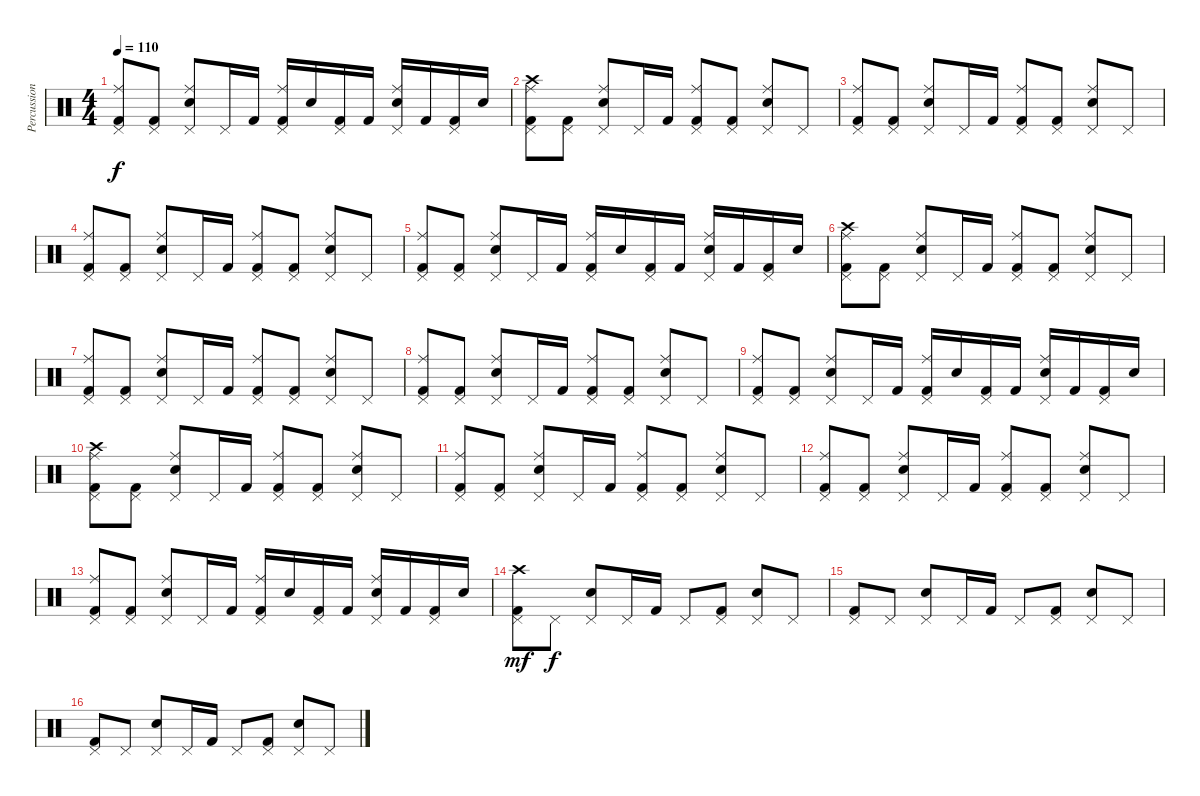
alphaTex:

\track ("Percussion" "Percussion") {instrument percussion}
\staff {score}
\articulation defaults
\ts (4 4)
\tempo 110
\clef neutral
\ks c
("Pedal Hi-Hat (hit)" "Kick (hit) 2" "Ride (middle)").8{dy f} ("Pedal Hi-Hat (hit)" "Kick (hit) 2").8 ("Pedal Hi-Hat (hit)" "Electric Snare (hit)" "Ride (middle)").8 "Pedal Hi-Hat (hit)".16 "Kick (hit) 2".16 ("Pedal Hi-Hat (hit)" "Kick (hit) 2" "Ride (middle)").16 "Electric Snare (hit)".16 ("Pedal Hi-Hat (hit)" "Kick (hit) 2").16 "Kick (hit) 2".16 ("Pedal Hi-Hat (hit)" "Electric Snare (hit)" "Ride (middle)").16 "Kick (hit) 2".16 ("Pedal Hi-Hat (hit)" "Kick (hit) 2").16 "Electric Snare (hit)".16 |
("Pedal Hi-Hat (hit)" "Kick (hit) 2" "Ride (middle)" "Crash high (hit)").8 ("Pedal Hi-Hat (hit)" "Kick (hit) 2").8 ("Pedal Hi-Hat (hit)" "Electric Snare (hit)" "Ride (middle)").8 "Pedal Hi-Hat (hit)".16 "Kick (hit) 2".16 ("Pedal Hi-Hat (hit)" "Kick (hit) 2" "Ride (middle)").8 ("Pedal Hi-Hat (hit)" "Kick (hit) 2").8 ("Pedal Hi-Hat (hit)" "Electric Snare (hit)" "Ride (middle)").8 "Pedal Hi-Hat (hit)".8 |
("Pedal Hi-Hat (hit)" "Kick (hit) 2" "Ride (middle)").8 ("Pedal Hi-Hat (hit)" "Kick (hit) 2").8 ("Pedal Hi-Hat (hit)" "Electric Snare (hit)" "Ride (middle)").8 "Pedal Hi-Hat (hit)".16 "Kick (hit) 2".16 ("Pedal Hi-Hat (hit)" "Kick (hit) 2" "Ride (middle)").8 ("Pedal Hi-Hat (hit)" "Kick (hit) 2").8 ("Pedal Hi-Hat (hit)" "Electric Snare (hit)" "Ride (middle)").8 "Pedal Hi-Hat (hit)".8 |
("Pedal Hi-Hat (hit)" "Kick (hit) 2" "Ride (middle)").8 ("Pedal Hi-Hat (hit)" "Kick (hit) 2").8 ("Pedal Hi-Hat (hit)" "Electric Snare (hit)" "Ride (middle)").8 "Pedal Hi-Hat (hit)".16 "Kick (hit) 2".16 ("Pedal Hi-Hat (hit)" "Kick (hit) 2" "Ride (middle)").8 ("Pedal Hi-Hat (hit)" "Kick (hit) 2").8 ("Pedal Hi-Hat (hit)" "Electric Snare (hit)" "Ride (middle)").8 "Pedal Hi-Hat (hit)".8 |
("Pedal Hi-Hat (hit)" "Kick (hit) 2" "Ride (middle)").8 ("Pedal Hi-Hat (hit)" "Kick (hit) 2").8 ("Pedal Hi-Hat (hit)" "Electric Snare (hit)" "Ride (middle)").8 "Pedal Hi-Hat (hit)".16 "Kick (hit) 2".16 ("Pedal Hi-Hat (hit)" "Kick (hit) 2" "Ride (middle)").16 "Electric Snare (hit)".16 ("Pedal Hi-Hat (hit)" "Kick (hit) 2").16 "Kick (hit) 2".16 ("Pedal Hi-Hat (hit)" "Electric Snare (hit)" "Ride (middle)").16 "Kick (hit) 2".16 ("Pedal Hi-Hat (hit)" "Kick (hit) 2").16 "Electric Snare (hit)".16 |
("Pedal Hi-Hat (hit)" "Kick (hit) 2" "Ride (middle)" "Crash high (hit)").8 ("Pedal Hi-Hat (hit)" "Kick (hit) 2").8 ("Pedal Hi-Hat (hit)" "Electric Snare (hit)" "Ride (middle)").8 "Pedal Hi-Hat (hit)".16 "Kick (hit) 2".16 ("Pedal Hi-Hat (hit)" "Kick (hit) 2" "Ride (middle)").8 ("Pedal Hi-Hat (hit)" "Kick (hit) 2").8 ("Pedal Hi-Hat (hit)" "Electric Snare (hit)" "Ride (middle)").8 "Pedal Hi-Hat (hit)".8 |
("Pedal Hi-Hat (hit)" "Kick (hit) 2" "Ride (middle)").8 ("Pedal Hi-Hat (hit)" "Kick (hit) 2").8 ("Pedal Hi-Hat (hit)" "Electric Snare (hit)" "Ride (middle)").8 "Pedal Hi-Hat (hit)".16 "Kick (hit) 2".16 ("Pedal Hi-Hat (hit)" "Kick (hit) 2" "Ride (middle)").8 ("Pedal Hi-Hat (hit)" "Kick (hit) 2").8 ("Pedal Hi-Hat (hit)" "Electric Snare (hit)" "Ride (middle)").8 "Pedal Hi-Hat (hit)".8 |
("Pedal Hi-Hat (hit)" "Kick (hit) 2" "Ride (middle)").8 ("Pedal Hi-Hat (hit)" "Kick (hit) 2").8 ("Pedal Hi-Hat (hit)" "Electric Snare (hit)" "Ride (middle)").8 "Pedal Hi-Hat (hit)".16 "Kick (hit) 2".16 ("Pedal Hi-Hat (hit)" "Kick (hit) 2" "Ride (middle)").8 ("Pedal Hi-Hat (hit)" "Kick (hit) 2").8 ("Pedal Hi-Hat (hit)" "Electric Snare (hit)" "Ride (middle)").8 "Pedal Hi-Hat (hit)".8 |
("Pedal Hi-Hat (hit)" "Kick (hit) 2" "Ride (middle)").8 ("Pedal Hi-Hat (hit)" "Kick (hit) 2").8 ("Pedal Hi-Hat (hit)" "Electric Snare (hit)" "Ride (middle)").8 "Pedal Hi-Hat (hit)".16 "Kick (hit) 2".16 ("Pedal Hi-Hat (hit)" "Kick (hit) 2" "Ride (middle)").16 "Electric Snare (hit)".16 ("Pedal Hi-Hat (hit)" "Kick (hit) 2").16 "Kick (hit) 2".16 ("Pedal Hi-Hat (hit)" "Electric Snare (hit)" "Ride (middle)").16 "Kick (hit) 2".16 ("Pedal Hi-Hat (hit)" "Kick (hit) 2").16 "Electric Snare (hit)".16 |
("Pedal Hi-Hat (hit)" "Kick (hit) 2" "Ride (middle)" "Crash high (hit)").8 ("Pedal Hi-Hat (hit)" "Kick (hit) 2").8 ("Pedal Hi-Hat (hit)" "Electric Snare (hit)" "Ride (middle)").8 "Pedal Hi-Hat (hit)".16 "Kick (hit) 2".16 ("Pedal Hi-Hat (hit)" "Kick (hit) 2" "Ride (middle)").8 ("Pedal Hi-Hat (hit)" "Kick (hit) 2").8 ("Pedal Hi-Hat (hit)" "Electric Snare (hit)" "Ride (middle)").8 "Pedal Hi-Hat (hit)".8 |
("Pedal Hi-Hat (hit)" "Kick (hit) 2" "Ride (middle)").8 ("Pedal Hi-Hat (hit)" "Kick (hit) 2").8 ("Pedal Hi-Hat (hit)" "Electric Snare (hit)" "Ride (middle)").8 "Pedal Hi-Hat (hit)".16 "Kick (hit) 2".16 ("Pedal Hi-Hat (hit)" "Kick (hit) 2" "Ride (middle)").8 ("Pedal Hi-Hat (hit)" "Kick (hit) 2").8 ("Pedal Hi-Hat (hit)" "Electric Snare (hit)" "Ride (middle)").8 "Pedal Hi-Hat (hit)".8 |
("Pedal Hi-Hat (hit)" "Kick (hit) 2" "Ride (middle)").8 ("Pedal Hi-Hat (hit)" "Kick (hit) 2").8 ("Pedal Hi-Hat (hit)" "Electric Snare (hit)" "Ride (middle)").8 "Pedal Hi-Hat (hit)".16 "Kick (hit) 2".16 ("Pedal Hi-Hat (hit)" "Kick (hit) 2" "Ride (middle)").8 ("Pedal Hi-Hat (hit)" "Kick (hit) 2").8 ("Pedal Hi-Hat (hit)" "Electric Snare (hit)" "Ride (middle)").8 "Pedal Hi-Hat (hit)".8 |
("Pedal Hi-Hat (hit)" "Kick (hit) 2" "Ride (middle)").8 ("Pedal Hi-Hat (hit)" "Kick (hit) 2").8 ("Pedal Hi-Hat (hit)" "Electric Snare (hit)" "Ride (middle)").8 "Pedal Hi-Hat (hit)".16 "Kick (hit) 2".16 ("Pedal Hi-Hat (hit)" "Kick (hit) 2" "Ride (middle)").16 "Electric Snare (hit)".16 ("Pedal Hi-Hat (hit)" "Kick (hit) 2").16 "Kick (hit) 2".16 ("Pedal Hi-Hat (hit)" "Electric Snare (hit)" "Ride (middle)").16 "Kick (hit) 2".16 ("Pedal Hi-Hat (hit)" "Kick (hit) 2").16 "Electric Snare (hit)".16 |
("Pedal Hi-Hat (hit)" "Kick (hit) 2" "Crash high (hit)").8{dy mf} "Pedal Hi-Hat (hit)".8{dy f} ("Pedal Hi-Hat (hit)" "Electric Snare (hit)").8 "Pedal Hi-Hat (hit)".16 "Kick (hit) 2".16 "Pedal Hi-Hat (hit)".8 ("Pedal Hi-Hat (hit)" "Kick (hit) 2").8 ("Pedal Hi-Hat (hit)" "Electric Snare (hit)").8 "Pedal Hi-Hat (hit)".8 |
("Pedal Hi-Hat (hit)" "Kick (hit) 2").8 "Pedal Hi-Hat (hit)".8 ("Pedal Hi-Hat (hit)" "Electric Snare (hit)").8 "Pedal Hi-Hat (hit)".16 "Kick (hit) 2".16 "Pedal Hi-Hat (hit)".8 ("Pedal Hi-Hat (hit)" "Kick (hit) 2").8 ("Pedal Hi-Hat (hit)" "Electric Snare (hit)").8 "Pedal Hi-Hat (hit)".8 |
("Pedal Hi-Hat (hit)" "Kick (hit) 2").8 "Pedal Hi-Hat (hit)".8 ("Pedal Hi-Hat (hit)" "Electric Snare (hit)").8 "Pedal Hi-Hat (hit)".16 "Kick (hit) 2".16 "Pedal Hi-Hat (hit)".8 ("Pedal Hi-Hat (hit)" "Kick (hit) 2").8 ("Pedal Hi-Hat (hit)" "Electric Snare (hit)").8 "Pedal Hi-Hat (hit)".8
